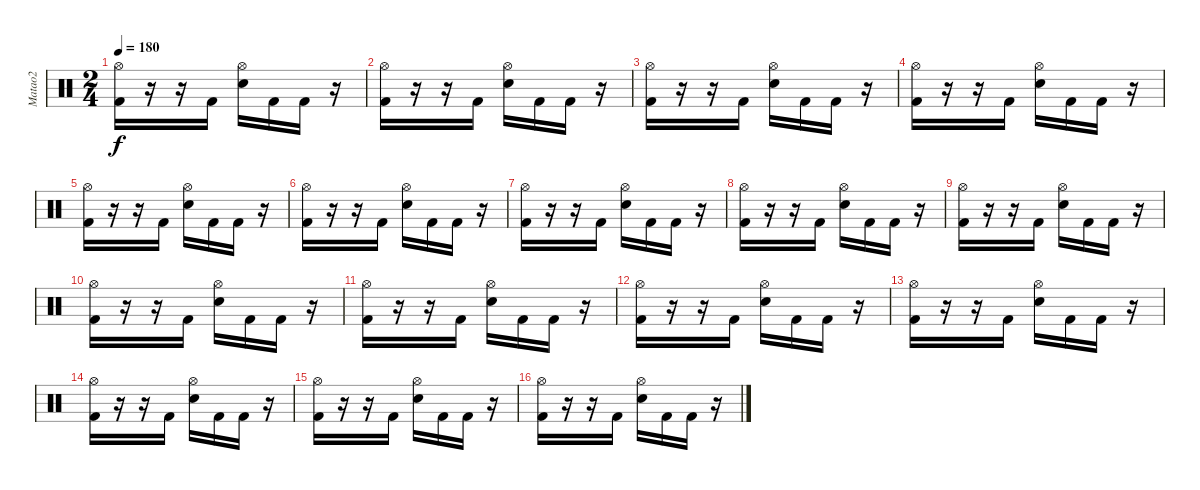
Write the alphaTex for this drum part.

\track ("Matao2" "Matao2") {instrument percussion}
\staff {score}
\articulation defaults
\ts (2 4)
\tempo 180
\clef neutral
\ks c
("Kick (hit) 2" "Hi-Hat (open)").16{dy f} r.16 r.16 "Kick (hit) 2".16 ("Electric Snare (hit)" "Hi-Hat (open)").16 "Kick (hit) 2".16 "Kick (hit) 2".16 r.16 |
("Kick (hit) 2" "Hi-Hat (open)").16 r.16 r.16 "Kick (hit) 2".16 ("Electric Snare (hit)" "Hi-Hat (open)").16 "Kick (hit) 2".16 "Kick (hit) 2".16 r.16 |
("Kick (hit) 2" "Hi-Hat (open)").16 r.16 r.16 "Kick (hit) 2".16 ("Electric Snare (hit)" "Hi-Hat (open)").16 "Kick (hit) 2".16 "Kick (hit) 2".16 r.16 |
("Kick (hit) 2" "Hi-Hat (open)").16 r.16 r.16 "Kick (hit) 2".16 ("Electric Snare (hit)" "Hi-Hat (open)").16 "Kick (hit) 2".16 "Kick (hit) 2".16 r.16 |
("Kick (hit) 2" "Hi-Hat (open)").16 r.16 r.16 "Kick (hit) 2".16 ("Electric Snare (hit)" "Hi-Hat (open)").16 "Kick (hit) 2".16 "Kick (hit) 2".16 r.16 |
("Kick (hit) 2" "Hi-Hat (open)").16 r.16 r.16 "Kick (hit) 2".16 ("Electric Snare (hit)" "Hi-Hat (open)").16 "Kick (hit) 2".16 "Kick (hit) 2".16 r.16 |
("Kick (hit) 2" "Hi-Hat (open)").16 r.16 r.16 "Kick (hit) 2".16 ("Electric Snare (hit)" "Hi-Hat (open)").16 "Kick (hit) 2".16 "Kick (hit) 2".16 r.16 |
("Kick (hit) 2" "Hi-Hat (open)").16 r.16 r.16 "Kick (hit) 2".16 ("Electric Snare (hit)" "Hi-Hat (open)").16 "Kick (hit) 2".16 "Kick (hit) 2".16 r.16 |
("Kick (hit) 2" "Hi-Hat (open)").16 r.16 r.16 "Kick (hit) 2".16 ("Electric Snare (hit)" "Hi-Hat (open)").16 "Kick (hit) 2".16 "Kick (hit) 2".16 r.16 |
("Kick (hit) 2" "Hi-Hat (open)").16 r.16 r.16 "Kick (hit) 2".16 ("Electric Snare (hit)" "Hi-Hat (open)").16 "Kick (hit) 2".16 "Kick (hit) 2".16 r.16 |
("Kick (hit) 2" "Hi-Hat (open)").16 r.16 r.16 "Kick (hit) 2".16 ("Electric Snare (hit)" "Hi-Hat (open)").16 "Kick (hit) 2".16 "Kick (hit) 2".16 r.16 |
("Kick (hit) 2" "Hi-Hat (open)").16 r.16 r.16 "Kick (hit) 2".16 ("Electric Snare (hit)" "Hi-Hat (open)").16 "Kick (hit) 2".16 "Kick (hit) 2".16 r.16 |
("Kick (hit) 2" "Hi-Hat (open)").16 r.16 r.16 "Kick (hit) 2".16 ("Electric Snare (hit)" "Hi-Hat (open)").16 "Kick (hit) 2".16 "Kick (hit) 2".16 r.16 |
("Kick (hit) 2" "Hi-Hat (open)").16 r.16 r.16 "Kick (hit) 2".16 ("Electric Snare (hit)" "Hi-Hat (open)").16 "Kick (hit) 2".16 "Kick (hit) 2".16 r.16 |
("Kick (hit) 2" "Hi-Hat (open)").16 r.16 r.16 "Kick (hit) 2".16 ("Electric Snare (hit)" "Hi-Hat (open)").16 "Kick (hit) 2".16 "Kick (hit) 2".16 r.16 |
("Kick (hit) 2" "Hi-Hat (open)").16 r.16 r.16 "Kick (hit) 2".16 ("Electric Snare (hit)" "Hi-Hat (open)").16 "Kick (hit) 2".16 "Kick (hit) 2".16 r.16
